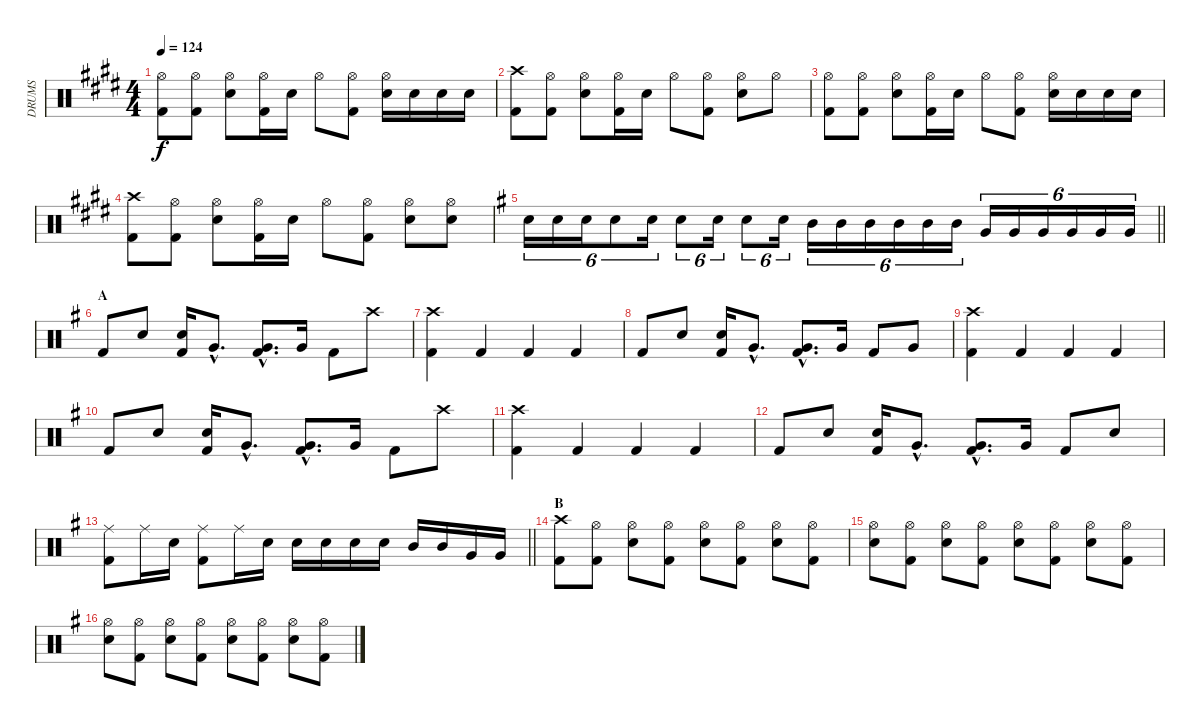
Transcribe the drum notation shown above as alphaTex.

\track ("DRUMS" "DRUMS") {instrument percussion}
\staff {score}
\articulation defaults
\ts (4 4)
\tempo 124
\clef neutral
\ks e
("Hi-Hat (open)" "Kick (hit) 2").8{dy f} ("Hi-Hat (open)" "Kick (hit) 2").8 ("Hi-Hat (open)" "Snare (hit) 2").8 ("Hi-Hat (open)" "Kick (hit) 2").16 "Snare (hit) 2".16 "Hi-Hat (open)".8 ("Hi-Hat (open)" "Kick (hit) 2").8 ("Hi-Hat (open)" "Snare (hit) 2").16 "Snare (hit) 2".16 "Snare (hit) 2".16 "Snare (hit) 2".16 |
("Crash high (hit)" "Kick (hit) 2").8 ("Hi-Hat (open)" "Kick (hit) 2").8 ("Hi-Hat (open)" "Snare (hit) 2").8 ("Hi-Hat (open)" "Kick (hit) 2").16 "Snare (hit) 2".16 "Hi-Hat (open)".8 ("Hi-Hat (open)" "Kick (hit) 2").8 ("Hi-Hat (open)" "Snare (hit) 2").8 "Hi-Hat (open)".8 |
("Hi-Hat (open)" "Kick (hit) 2").8 ("Hi-Hat (open)" "Kick (hit) 2").8 ("Hi-Hat (open)" "Snare (hit) 2").8 ("Hi-Hat (open)" "Kick (hit) 2").16 "Snare (hit) 2".16 "Hi-Hat (open)".8 ("Hi-Hat (open)" "Kick (hit) 2").8 ("Hi-Hat (open)" "Snare (hit) 2").16 "Snare (hit) 2".16 "Snare (hit) 2".16 "Snare (hit) 2".16 |
("Crash high (hit)" "Kick (hit) 2").8 ("Hi-Hat (open)" "Kick (hit) 2").8 ("Hi-Hat (open)" "Snare (hit) 2").8 ("Hi-Hat (open)" "Kick (hit) 2").16 "Snare (hit) 2".16 "Hi-Hat (open)".8 ("Hi-Hat (open)" "Kick (hit) 2").8 ("Hi-Hat (open)" "Snare (hit) 2").8 ("Hi-Hat (open)" "Snare (hit) 2").8 |
\barLineRight lightlight
\ks g "Snare (hit) 2".16{tu (6 4)} "Snare (hit) 2".16{tu (6 4)} "Snare (hit) 2".16{tu (6 4)} "Snare (hit) 2".8{tu (6 4)} "Snare (hit) 2".16{tu (6 4)} "Snare (hit) 2".8{tu (6 4)} "Snare (hit) 2".16{tu (6 4)} "Snare (hit) 2".8{tu (6 4)} "Snare (hit) 2".16{tu (6 4)} "Mid Tom (hit)".16{tu (6 4)} "Mid Tom (hit)".16{tu (6 4)} "Mid Tom (hit)".16{tu (6 4)} "Mid Tom (hit)".16{tu (6 4)} "Mid Tom (hit)".16{tu (6 4)} "Mid Tom (hit)".16{tu (6 4)} "Very Low Tom (hit)".16{tu (6 4)} "Very Low Tom (hit)".16{tu (6 4)} "Very Low Tom (hit)".16{tu (6 4)} "Very Low Tom (hit)".16{tu (6 4)} "Very Low Tom (hit)".16{tu (6 4)} "Very Low Tom (hit)".16{tu (6 4)}
|
\section ("" "A")
"Kick (hit) 2".8 "Snare (hit) 2".8 ("Snare (hit) 2" "Kick (hit) 2").16 "Very Low Tom (hit)"{hac}.8{d} ("Kick (hit) 2"{hac} "Very Low Tom (hit)"{hac}).8{d} "Very Low Tom (hit)".16 "Kick (hit) 2".8 "Crash high (hit)".8 |
("Crash high (hit)" "Kick (hit) 2").4 "Kick (hit) 2".4 "Kick (hit) 2".4 "Kick (hit) 2".4 |
"Kick (hit) 2".8 "Snare (hit) 2".8 ("Snare (hit) 2" "Kick (hit) 2").16 "Very Low Tom (hit)"{hac}.8{d} ("Kick (hit) 2"{hac} "Very Low Tom (hit)"{hac}).8{d} "Very Low Tom (hit)".16 "Kick (hit) 2".8 "Very Low Tom (hit)".8 |
("Crash high (hit)" "Kick (hit) 2").4 "Kick (hit) 2".4 "Kick (hit) 2".4 "Kick (hit) 2".4 |
"Kick (hit) 2".8 "Snare (hit) 2".8 ("Snare (hit) 2" "Kick (hit) 2").16 "Very Low Tom (hit)"{hac}.8{d} ("Kick (hit) 2"{hac} "Very Low Tom (hit)"{hac}).8{d} "Very Low Tom (hit)".16 "Kick (hit) 2".8 "Crash high (hit)".8 |
("Crash high (hit)" "Kick (hit) 2").4 "Kick (hit) 2".4 "Kick (hit) 2".4 "Kick (hit) 2".4 |
"Kick (hit) 2".8 "Snare (hit) 2".8 ("Snare (hit) 2" "Kick (hit) 2").16 "Very Low Tom (hit)"{hac}.8{d} ("Kick (hit) 2"{hac} "Very Low Tom (hit)"{hac}).8{d} "Very Low Tom (hit)".16 "Kick (hit) 2".8 "Snare (hit) 2".8 |
\barLineRight lightlight
("Ride (middle)" "Kick (hit) 2").8 "Ride (middle)".16 "Snare (hit) 2".16 ("Ride (middle)" "Kick (hit) 2").8 "Ride (middle)".16 "Snare (hit) 2".16 "Snare (hit) 2".16 "Snare (hit) 2".16 "Snare (hit) 2".16 "Snare (hit) 2".16 "Mid Tom (hit)".16 "Mid Tom (hit)".16 "Very Low Tom (hit)".16 "Very Low Tom (hit)".16 |
\section ("" "B")
("Crash high (hit)" "Kick (hit) 2").8 ("Hi-Hat (open)" "Kick (hit) 2").8 ("Hi-Hat (open)" "Snare (hit) 2").8 ("Hi-Hat (open)" "Kick (hit) 2").8 ("Hi-Hat (open)" "Snare (hit) 2").8 ("Hi-Hat (open)" "Kick (hit) 2").8 ("Hi-Hat (open)" "Snare (hit) 2").8 ("Hi-Hat (open)" "Kick (hit) 2").8 |
("Hi-Hat (open)" "Snare (hit) 2").8 ("Hi-Hat (open)" "Kick (hit) 2").8 ("Hi-Hat (open)" "Snare (hit) 2").8 ("Hi-Hat (open)" "Kick (hit) 2").8 ("Hi-Hat (open)" "Snare (hit) 2").8 ("Hi-Hat (open)" "Kick (hit) 2").8 ("Hi-Hat (open)" "Snare (hit) 2").8 ("Hi-Hat (open)" "Kick (hit) 2").8 |
("Hi-Hat (open)" "Snare (hit) 2").8 ("Hi-Hat (open)" "Kick (hit) 2").8 ("Hi-Hat (open)" "Snare (hit) 2").8 ("Hi-Hat (open)" "Kick (hit) 2").8 ("Hi-Hat (open)" "Snare (hit) 2").8 ("Hi-Hat (open)" "Kick (hit) 2").8 ("Hi-Hat (open)" "Snare (hit) 2").8 ("Hi-Hat (open)" "Kick (hit) 2").8
